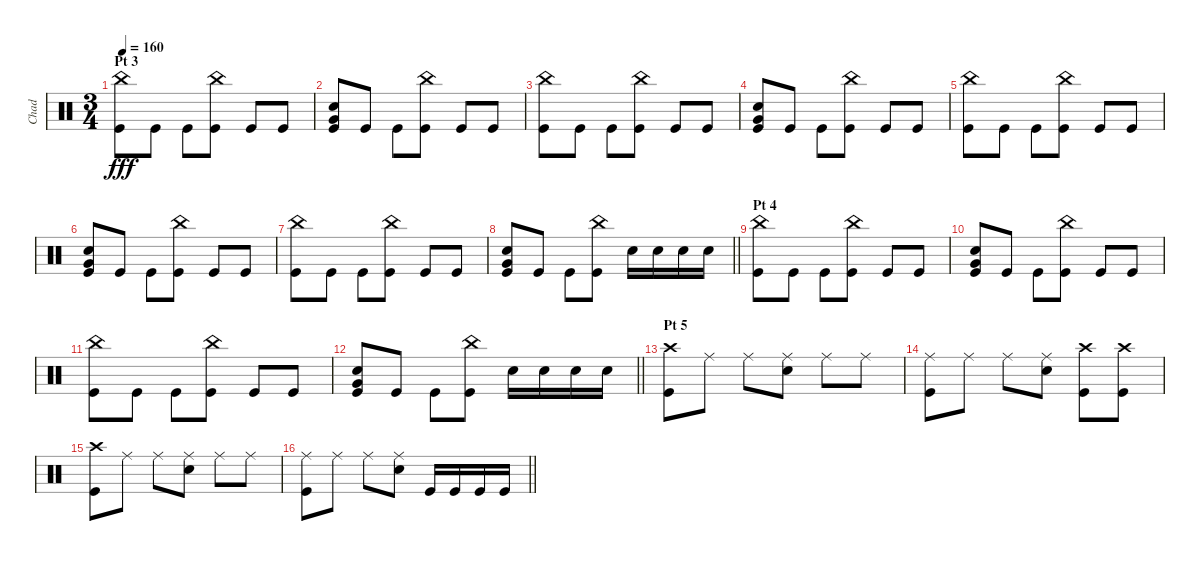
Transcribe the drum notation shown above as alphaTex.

\track ("Chad" "Chad") {instrument percussion}
\staff {score}
\articulation defaults
\ts (3 4)
\section ("" "Pt 3")
\tempo 160
\clef neutral
\ks c
("Kick (hit)" "China (hit)").8{dy fff} "Kick (hit)".8 "Kick (hit)".8 ("Kick (hit)" "China (hit)").8 "Kick (hit)".8 "Kick (hit)".8 |
("Kick (hit)" "Snare (hit) 2" "Very Low Tom (hit)").8 "Kick (hit)".8 "Kick (hit)".8 ("Kick (hit)" "China (hit)").8 "Kick (hit)".8 "Kick (hit)".8 |
("Kick (hit)" "China (hit)").8 "Kick (hit)".8 "Kick (hit)".8 ("Kick (hit)" "China (hit)").8 "Kick (hit)".8 "Kick (hit)".8 |
("Kick (hit)" "Snare (hit) 2" "Very Low Tom (hit)").8 "Kick (hit)".8 "Kick (hit)".8 ("Kick (hit)" "China (hit)").8 "Kick (hit)".8 "Kick (hit)".8 |
("Kick (hit)" "China (hit)").8 "Kick (hit)".8 "Kick (hit)".8 ("Kick (hit)" "China (hit)").8 "Kick (hit)".8 "Kick (hit)".8 |
("Kick (hit)" "Snare (hit) 2" "Very Low Tom (hit)").8 "Kick (hit)".8 "Kick (hit)".8 ("Kick (hit)" "China (hit)").8 "Kick (hit)".8 "Kick (hit)".8 |
("Kick (hit)" "China (hit)").8 "Kick (hit)".8 "Kick (hit)".8 ("Kick (hit)" "China (hit)").8 "Kick (hit)".8 "Kick (hit)".8 |
\barLineRight lightlight
("Kick (hit)" "Snare (hit) 2" "Very Low Tom (hit)").8 "Kick (hit)".8 "Kick (hit)".8 ("Kick (hit)" "China (hit)").8 "Snare (hit) 2".16 "Snare (hit) 2".16 "Snare (hit) 2".16 "Snare (hit) 2".16 |
\section ("" "Pt 4")
("Kick (hit)" "China (hit)").8 "Kick (hit)".8 "Kick (hit)".8 ("Kick (hit)" "China (hit)").8 "Kick (hit)".8 "Kick (hit)".8 |
("Kick (hit)" "Snare (hit) 2" "Very Low Tom (hit)").8 "Kick (hit)".8 "Kick (hit)".8 ("Kick (hit)" "China (hit)").8 "Kick (hit)".8 "Kick (hit)".8 |
("Kick (hit)" "China (hit)").8 "Kick (hit)".8 "Kick (hit)".8 ("Kick (hit)" "China (hit)").8 "Kick (hit)".8 "Kick (hit)".8 |
\barLineRight lightlight
("Kick (hit)" "Snare (hit) 2" "Very Low Tom (hit)").8 "Kick (hit)".8 "Kick (hit)".8 ("Kick (hit)" "China (hit)").8 "Snare (hit) 2".16 "Snare (hit) 2".16 "Snare (hit) 2".16 "Snare (hit) 2".16 |
\section ("" "Pt 5")
("Kick (hit)" "Crash high (hit)").8 "Ride (middle)".8 "Ride (middle)".8 ("Ride (middle)" "Snare (hit) 2").8 "Ride (middle)".8 "Ride (middle)".8 |
("Ride (middle)" "Kick (hit)").8 "Ride (middle)".8 "Ride (middle)".8 ("Ride (middle)" "Snare (hit) 2").8 ("Crash high (hit)" "Kick (hit)").8 ("Crash high (hit)" "Kick (hit)").8 |
("Kick (hit)" "Crash high (hit)").8 "Ride (middle)".8 "Ride (middle)".8 ("Ride (middle)" "Snare (hit) 2").8 "Ride (middle)".8 "Ride (middle)".8 |
\barLineRight lightlight
("Kick (hit)" "Ride (middle)").8 "Ride (middle)".8 "Ride (middle)".8 ("Ride (middle)" "Snare (hit) 2").8 "Kick (hit)".16 "Kick (hit)".16 "Kick (hit)".16 "Kick (hit)".16
